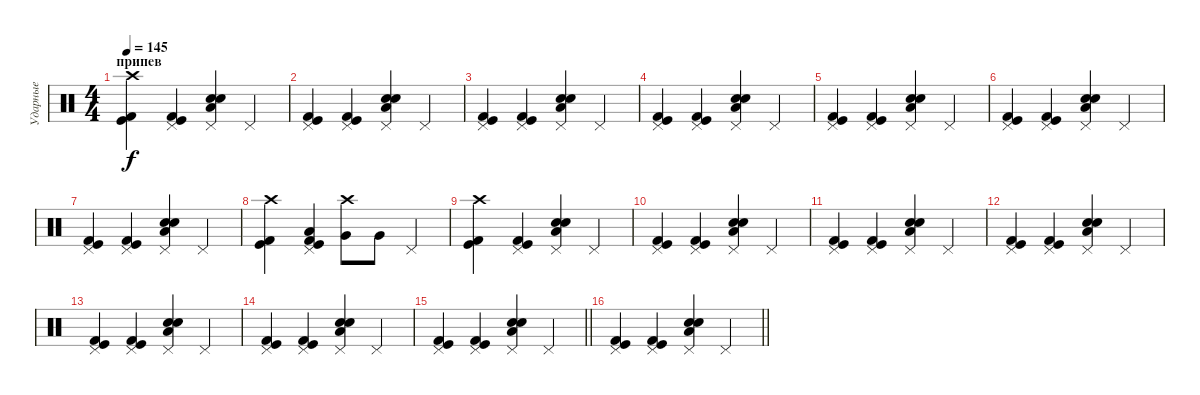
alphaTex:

\track ("Ударные" "Ударные") {instrument percussion}
\staff {score}
\articulation defaults
\ts (4 4)
\section ("" "припев")
\tempo 145
\clef neutral
\ks c
("Crash high (hit)" "Kick (hit) 2" "Kick (hit)").4{dy f} ("Pedal Hi-Hat (hit)" "Kick (hit) 2" "Kick (hit)").4 ("Pedal Hi-Hat (hit)" "Snare (hit) 2" "Electric Snare (hit)" "Low Floor Tom (hit)").4 "Pedal Hi-Hat (hit)".4 |
("Pedal Hi-Hat (hit)" "Kick (hit) 2" "Kick (hit)").4 ("Pedal Hi-Hat (hit)" "Kick (hit) 2" "Kick (hit)").4 ("Pedal Hi-Hat (hit)" "Snare (hit) 2" "Electric Snare (hit)" "Low Floor Tom (hit)").4 "Pedal Hi-Hat (hit)".4 |
("Pedal Hi-Hat (hit)" "Kick (hit) 2" "Kick (hit)").4 ("Pedal Hi-Hat (hit)" "Kick (hit) 2" "Kick (hit)").4 ("Pedal Hi-Hat (hit)" "Snare (hit) 2" "Electric Snare (hit)" "Low Floor Tom (hit)").4 "Pedal Hi-Hat (hit)".4 |
("Pedal Hi-Hat (hit)" "Kick (hit) 2" "Kick (hit)").4 ("Pedal Hi-Hat (hit)" "Kick (hit) 2" "Kick (hit)").4 ("Pedal Hi-Hat (hit)" "Snare (hit) 2" "Electric Snare (hit)" "Low Floor Tom (hit)").4 "Pedal Hi-Hat (hit)".4 |
("Pedal Hi-Hat (hit)" "Kick (hit) 2" "Kick (hit)").4 ("Pedal Hi-Hat (hit)" "Kick (hit) 2" "Kick (hit)").4 ("Pedal Hi-Hat (hit)" "Snare (hit) 2" "Electric Snare (hit)" "Low Floor Tom (hit)").4 "Pedal Hi-Hat (hit)".4 |
("Pedal Hi-Hat (hit)" "Kick (hit) 2" "Kick (hit)").4 ("Pedal Hi-Hat (hit)" "Kick (hit) 2" "Kick (hit)").4 ("Pedal Hi-Hat (hit)" "Snare (hit) 2" "Electric Snare (hit)" "Low Floor Tom (hit)").4 "Pedal Hi-Hat (hit)".4 |
("Pedal Hi-Hat (hit)" "Kick (hit) 2" "Kick (hit)").4 ("Pedal Hi-Hat (hit)" "Kick (hit) 2" "Kick (hit)").4 ("Pedal Hi-Hat (hit)" "Snare (hit) 2" "Electric Snare (hit)" "Low Floor Tom (hit)").4 "Pedal Hi-Hat (hit)".4 |
("Crash high (hit)" "Kick (hit) 2" "Kick (hit)").4 ("Pedal Hi-Hat (hit)" "Kick (hit) 2" "Low Tom (hit)" "Kick (hit)").4 ("Crash high (hit)" "Very Low Tom (hit)").8 "Very Low Tom (hit)".8 "Pedal Hi-Hat (hit)".4 |
("Crash high (hit)" "Kick (hit) 2" "Kick (hit)").4 ("Pedal Hi-Hat (hit)" "Kick (hit) 2" "Kick (hit)").4 ("Pedal Hi-Hat (hit)" "Snare (hit) 2" "Electric Snare (hit)" "Low Floor Tom (hit)").4 "Pedal Hi-Hat (hit)".4 |
("Pedal Hi-Hat (hit)" "Kick (hit) 2" "Kick (hit)").4 ("Pedal Hi-Hat (hit)" "Kick (hit) 2" "Kick (hit)").4 ("Pedal Hi-Hat (hit)" "Snare (hit) 2" "Electric Snare (hit)" "Low Floor Tom (hit)").4 "Pedal Hi-Hat (hit)".4 |
("Pedal Hi-Hat (hit)" "Kick (hit) 2" "Kick (hit)").4 ("Pedal Hi-Hat (hit)" "Kick (hit) 2" "Kick (hit)").4 ("Pedal Hi-Hat (hit)" "Snare (hit) 2" "Electric Snare (hit)" "Low Floor Tom (hit)").4 "Pedal Hi-Hat (hit)".4 |
("Pedal Hi-Hat (hit)" "Kick (hit) 2" "Kick (hit)").4 ("Pedal Hi-Hat (hit)" "Kick (hit) 2" "Kick (hit)").4 ("Pedal Hi-Hat (hit)" "Snare (hit) 2" "Electric Snare (hit)" "Low Floor Tom (hit)").4 "Pedal Hi-Hat (hit)".4 |
("Pedal Hi-Hat (hit)" "Kick (hit) 2" "Kick (hit)").4 ("Pedal Hi-Hat (hit)" "Kick (hit) 2" "Kick (hit)").4 ("Pedal Hi-Hat (hit)" "Snare (hit) 2" "Electric Snare (hit)" "Low Floor Tom (hit)").4 "Pedal Hi-Hat (hit)".4 |
("Pedal Hi-Hat (hit)" "Kick (hit) 2" "Kick (hit)").4 ("Pedal Hi-Hat (hit)" "Kick (hit) 2" "Kick (hit)").4 ("Pedal Hi-Hat (hit)" "Snare (hit) 2" "Electric Snare (hit)" "Low Floor Tom (hit)").4 "Pedal Hi-Hat (hit)".4 |
\barLineRight lightlight
("Pedal Hi-Hat (hit)" "Kick (hit) 2" "Kick (hit)").4 ("Pedal Hi-Hat (hit)" "Kick (hit) 2" "Kick (hit)").4 ("Pedal Hi-Hat (hit)" "Snare (hit) 2" "Electric Snare (hit)" "Low Floor Tom (hit)").4 "Pedal Hi-Hat (hit)".4 |
\barLineRight lightlight
("Pedal Hi-Hat (hit)" "Kick (hit) 2" "Kick (hit)").4 ("Pedal Hi-Hat (hit)" "Kick (hit) 2" "Kick (hit)").4 ("Pedal Hi-Hat (hit)" "Snare (hit) 2" "Electric Snare (hit)" "Low Floor Tom (hit)").4 "Pedal Hi-Hat (hit)".4
